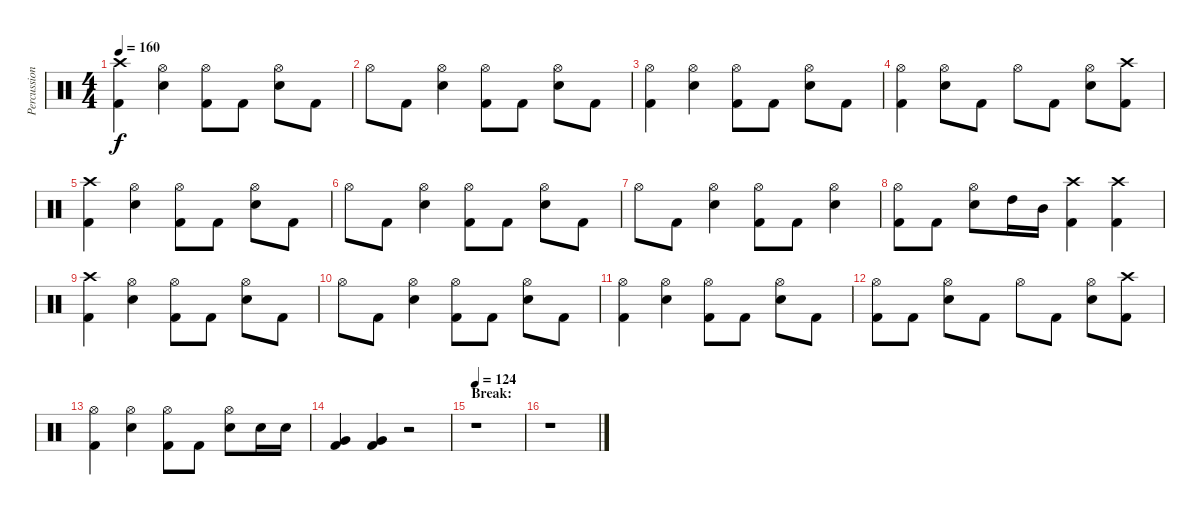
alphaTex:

\track ("Percussion" "Percussion") {instrument percussion}
\staff {score}
\articulation defaults
\ts (4 4)
\tempo 160
\clef neutral
\ks c
("Crash high (hit)" "Kick (hit) 2").4{dy f} ("Hi-Hat (open)" "Electric Snare (hit)").4 ("Hi-Hat (open)" "Kick (hit) 2").8 "Kick (hit) 2".8 ("Hi-Hat (open)" "Electric Snare (hit)").8 "Kick (hit) 2".8 |
"Hi-Hat (open)".8 "Kick (hit) 2".8 ("Hi-Hat (open)" "Electric Snare (hit)").4 ("Hi-Hat (open)" "Kick (hit) 2").8 "Kick (hit) 2".8 ("Hi-Hat (open)" "Electric Snare (hit)").8 "Kick (hit) 2".8 |
("Hi-Hat (open)" "Kick (hit) 2").4 ("Hi-Hat (open)" "Electric Snare (hit)").4 ("Hi-Hat (open)" "Kick (hit) 2").8 "Kick (hit) 2".8 ("Hi-Hat (open)" "Electric Snare (hit)").8 "Kick (hit) 2".8 |
("Hi-Hat (open)" "Kick (hit) 2").4 ("Hi-Hat (open)" "Electric Snare (hit)").8 "Kick (hit) 2".8 "Hi-Hat (open)".8 "Kick (hit) 2".8 ("Hi-Hat (open)" "Electric Snare (hit)").8 ("Crash high (hit)" "Kick (hit) 2").8 |
("Crash high (hit)" "Kick (hit) 2").4 ("Hi-Hat (open)" "Electric Snare (hit)").4 ("Hi-Hat (open)" "Kick (hit) 2").8 "Kick (hit) 2".8 ("Hi-Hat (open)" "Electric Snare (hit)").8 "Kick (hit) 2".8 |
"Hi-Hat (open)".8 "Kick (hit) 2".8 ("Hi-Hat (open)" "Electric Snare (hit)").4 ("Hi-Hat (open)" "Kick (hit) 2").8 "Kick (hit) 2".8 ("Hi-Hat (open)" "Electric Snare (hit)").8 "Kick (hit) 2".8 |
"Hi-Hat (open)".8 "Kick (hit) 2".8 ("Hi-Hat (open)" "Electric Snare (hit)").4 ("Hi-Hat (open)" "Kick (hit) 2").8 "Kick (hit) 2".8 ("Hi-Hat (open)" "Electric Snare (hit)").4 |
("Hi-Hat (open)" "Kick (hit) 2").8 "Kick (hit) 2".8 ("Hi-Hat (open)" "Electric Snare (hit)").8 "High Tom (hit)".16 "Mid Tom (hit)".16 ("Crash high (hit)" "Kick (hit) 2").4 ("Crash high (hit)" "Kick (hit) 2").4 |
("Crash high (hit)" "Kick (hit) 2").4 ("Hi-Hat (open)" "Electric Snare (hit)").4 ("Hi-Hat (open)" "Kick (hit) 2").8 "Kick (hit) 2".8 ("Hi-Hat (open)" "Electric Snare (hit)").8 "Kick (hit) 2".8 |
"Hi-Hat (open)".8 "Kick (hit) 2".8 ("Hi-Hat (open)" "Electric Snare (hit)").4 ("Hi-Hat (open)" "Kick (hit) 2").8 "Kick (hit) 2".8 ("Hi-Hat (open)" "Electric Snare (hit)").8 "Kick (hit) 2".8 |
("Hi-Hat (open)" "Kick (hit) 2").4 ("Hi-Hat (open)" "Electric Snare (hit)").4 ("Hi-Hat (open)" "Kick (hit) 2").8 "Kick (hit) 2".8 ("Hi-Hat (open)" "Electric Snare (hit)").8 "Kick (hit) 2".8 |
("Hi-Hat (open)" "Kick (hit) 2").8 "Kick (hit) 2".8 ("Hi-Hat (open)" "Electric Snare (hit)").8 "Kick (hit) 2".8 "Hi-Hat (open)".8 "Kick (hit) 2".8 ("Hi-Hat (open)" "Electric Snare (hit)").8 ("Crash high (hit)" "Kick (hit) 2").8 |
("Hi-Hat (open)" "Kick (hit) 2").4 ("Hi-Hat (open)" "Electric Snare (hit)").4 ("Hi-Hat (open)" "Kick (hit) 2").8 "Kick (hit) 2".8 ("Hi-Hat (open)" "Electric Snare (hit)").8 "Electric Snare (hit)".16 "Electric Snare (hit)".16 |
("Very Low Tom (hit)" "Kick (hit) 2").4 ("Very Low Tom (hit)" "Kick (hit) 2").4 r.2 |
\section ("" "Break:")
\tempo 124
r.1 |
r.1
